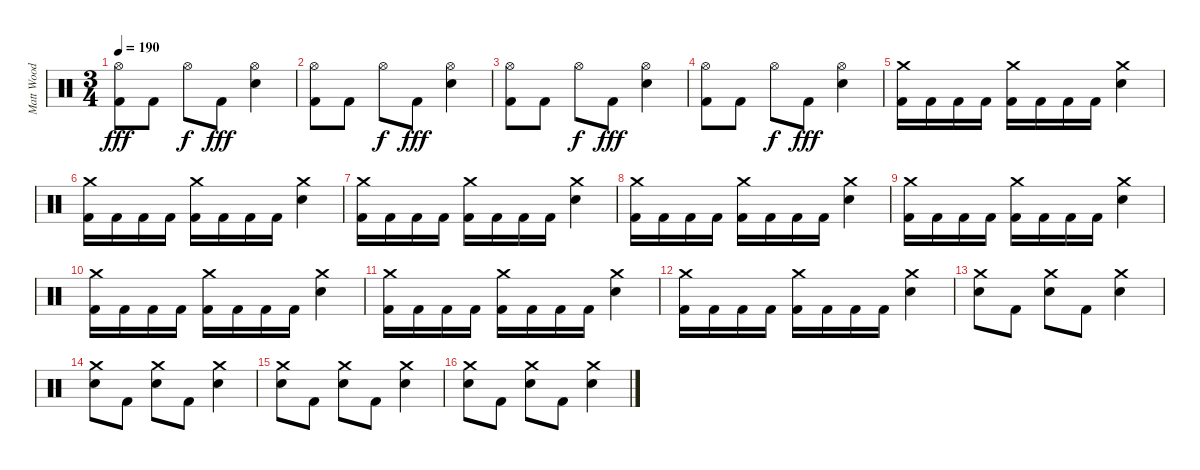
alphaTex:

\track ("Matt Wood" "Matt Wood") {instrument percussion}
\staff {score}
\articulation defaults
\ts (3 4)
\tempo 190
\clef neutral
\ks c
("Hi-Hat (open)" "Kick (hit) 2").8{dy fff} "Kick (hit) 2".8 "Hi-Hat (open)".8{dy f} "Kick (hit) 2".8{dy fff} ("Hi-Hat (open)" "Electric Snare (hit)").4 |
("Hi-Hat (open)" "Kick (hit) 2").8 "Kick (hit) 2".8 "Hi-Hat (open)".8{dy f} "Kick (hit) 2".8{dy fff} ("Hi-Hat (open)" "Electric Snare (hit)").4 |
("Hi-Hat (open)" "Kick (hit) 2").8 "Kick (hit) 2".8 "Hi-Hat (open)".8{dy f} "Kick (hit) 2".8{dy fff} ("Hi-Hat (open)" "Electric Snare (hit)").4 |
("Hi-Hat (open)" "Kick (hit) 2").8 "Kick (hit) 2".8 "Hi-Hat (open)".8{dy f} "Kick (hit) 2".8{dy fff} ("Hi-Hat (open)" "Electric Snare (hit)").4 |
("Crash medium (hit)" "Kick (hit) 2").16 "Kick (hit) 2".16 "Kick (hit) 2".16 "Kick (hit) 2".16 ("Crash medium (hit)" "Kick (hit) 2").16 "Kick (hit) 2".16 "Kick (hit) 2".16 "Kick (hit) 2".16 ("Crash medium (hit)" "Electric Snare (hit)").4 |
("Crash medium (hit)" "Kick (hit) 2").16 "Kick (hit) 2".16 "Kick (hit) 2".16 "Kick (hit) 2".16 ("Crash medium (hit)" "Kick (hit) 2").16 "Kick (hit) 2".16 "Kick (hit) 2".16 "Kick (hit) 2".16 ("Crash medium (hit)" "Electric Snare (hit)").4 |
("Crash medium (hit)" "Kick (hit) 2").16 "Kick (hit) 2".16 "Kick (hit) 2".16 "Kick (hit) 2".16 ("Crash medium (hit)" "Kick (hit) 2").16 "Kick (hit) 2".16 "Kick (hit) 2".16 "Kick (hit) 2".16 ("Crash medium (hit)" "Electric Snare (hit)").4 |
("Crash medium (hit)" "Kick (hit) 2").16 "Kick (hit) 2".16 "Kick (hit) 2".16 "Kick (hit) 2".16 ("Crash medium (hit)" "Kick (hit) 2").16 "Kick (hit) 2".16 "Kick (hit) 2".16 "Kick (hit) 2".16 ("Crash medium (hit)" "Electric Snare (hit)").4 |
("Crash medium (hit)" "Kick (hit) 2").16 "Kick (hit) 2".16 "Kick (hit) 2".16 "Kick (hit) 2".16 ("Crash medium (hit)" "Kick (hit) 2").16 "Kick (hit) 2".16 "Kick (hit) 2".16 "Kick (hit) 2".16 ("Crash medium (hit)" "Electric Snare (hit)").4 |
("Crash medium (hit)" "Kick (hit) 2").16 "Kick (hit) 2".16 "Kick (hit) 2".16 "Kick (hit) 2".16 ("Crash medium (hit)" "Kick (hit) 2").16 "Kick (hit) 2".16 "Kick (hit) 2".16 "Kick (hit) 2".16 ("Crash medium (hit)" "Electric Snare (hit)").4 |
("Crash medium (hit)" "Kick (hit) 2").16 "Kick (hit) 2".16 "Kick (hit) 2".16 "Kick (hit) 2".16 ("Crash medium (hit)" "Kick (hit) 2").16 "Kick (hit) 2".16 "Kick (hit) 2".16 "Kick (hit) 2".16 ("Crash medium (hit)" "Electric Snare (hit)").4 |
("Crash medium (hit)" "Kick (hit) 2").16 "Kick (hit) 2".16 "Kick (hit) 2".16 "Kick (hit) 2".16 ("Crash medium (hit)" "Kick (hit) 2").16 "Kick (hit) 2".16 "Kick (hit) 2".16 "Kick (hit) 2".16 ("Crash medium (hit)" "Electric Snare (hit)").4 |
("Crash medium (hit)" "Electric Snare (hit)").8 "Kick (hit) 2".8 ("Crash medium (hit)" "Electric Snare (hit)").8 "Kick (hit) 2".8 ("Crash medium (hit)" "Electric Snare (hit)").4 |
("Crash medium (hit)" "Electric Snare (hit)").8 "Kick (hit) 2".8 ("Crash medium (hit)" "Electric Snare (hit)").8 "Kick (hit) 2".8 ("Crash medium (hit)" "Electric Snare (hit)").4 |
("Crash medium (hit)" "Electric Snare (hit)").8 "Kick (hit) 2".8 ("Crash medium (hit)" "Electric Snare (hit)").8 "Kick (hit) 2".8 ("Crash medium (hit)" "Electric Snare (hit)").4 |
("Crash medium (hit)" "Electric Snare (hit)").8 "Kick (hit) 2".8 ("Crash medium (hit)" "Electric Snare (hit)").8 "Kick (hit) 2".8 ("Crash medium (hit)" "Electric Snare (hit)").4
